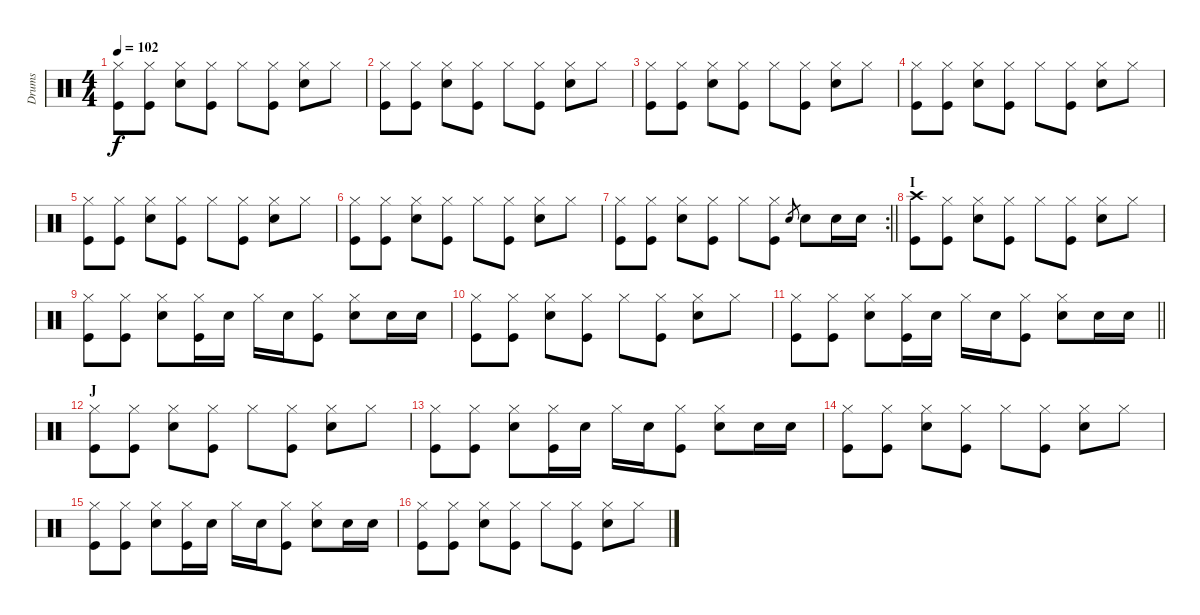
\track ("Drums" "Drums") {instrument percussion}
\staff {score}
\articulation defaults
\ts (4 4)
\tempo 102
\clef neutral
\ks c
("Hi-Hat (closed)" "Kick (hit)").8{dy f} ("Hi-Hat (closed)" "Kick (hit)").8 ("Hi-Hat (closed)" "Electric Snare (hit)").8 ("Hi-Hat (closed)" "Kick (hit)").8 "Hi-Hat (closed)".8 ("Hi-Hat (closed)" "Kick (hit)").8 ("Hi-Hat (closed)" "Electric Snare (hit)").8 "Hi-Hat (closed)".8 |
("Hi-Hat (closed)" "Kick (hit)").8 ("Hi-Hat (closed)" "Kick (hit)").8 ("Hi-Hat (closed)" "Electric Snare (hit)").8 ("Hi-Hat (closed)" "Kick (hit)").8 "Hi-Hat (closed)".8 ("Hi-Hat (closed)" "Kick (hit)").8 ("Hi-Hat (closed)" "Electric Snare (hit)").8 "Hi-Hat (closed)".8 |
("Hi-Hat (closed)" "Kick (hit)").8 ("Hi-Hat (closed)" "Kick (hit)").8 ("Hi-Hat (closed)" "Electric Snare (hit)").8 ("Hi-Hat (closed)" "Kick (hit)").8 "Hi-Hat (closed)".8 ("Hi-Hat (closed)" "Kick (hit)").8 ("Hi-Hat (closed)" "Electric Snare (hit)").8 "Hi-Hat (closed)".8 |
("Hi-Hat (closed)" "Kick (hit)").8 ("Hi-Hat (closed)" "Kick (hit)").8 ("Hi-Hat (closed)" "Electric Snare (hit)").8 ("Hi-Hat (closed)" "Kick (hit)").8 "Hi-Hat (closed)".8 ("Hi-Hat (closed)" "Kick (hit)").8 ("Hi-Hat (closed)" "Electric Snare (hit)").8 "Hi-Hat (closed)".8 |
("Hi-Hat (closed)" "Kick (hit)").8 ("Hi-Hat (closed)" "Kick (hit)").8 ("Hi-Hat (closed)" "Electric Snare (hit)").8 ("Hi-Hat (closed)" "Kick (hit)").8 "Hi-Hat (closed)".8 ("Hi-Hat (closed)" "Kick (hit)").8 ("Hi-Hat (closed)" "Electric Snare (hit)").8 "Hi-Hat (closed)".8 |
("Hi-Hat (closed)" "Kick (hit)").8 ("Hi-Hat (closed)" "Kick (hit)").8 ("Hi-Hat (closed)" "Electric Snare (hit)").8 ("Hi-Hat (closed)" "Kick (hit)").8 "Hi-Hat (closed)".8 ("Hi-Hat (closed)" "Kick (hit)").8 ("Hi-Hat (closed)" "Electric Snare (hit)").8 "Hi-Hat (closed)".8 |
\rc 2
\barLineRight lightlight
("Hi-Hat (closed)" "Kick (hit)").8 ("Hi-Hat (closed)" "Kick (hit)").8 ("Hi-Hat (closed)" "Electric Snare (hit)").8 ("Hi-Hat (closed)" "Kick (hit)").8 "Hi-Hat (closed)".8 ("Hi-Hat (closed)" "Kick (hit)").8 "Electric Snare (hit)".8{gr} "Electric Snare (hit)".8 "Electric Snare (hit)".16 "Electric Snare (hit)".16 |
\section ("" "I")
("Crash high (hit)" "Kick (hit)").8 ("Hi-Hat (closed)" "Kick (hit)").8 ("Hi-Hat (closed)" "Electric Snare (hit)").8 ("Hi-Hat (closed)" "Kick (hit)").8 "Hi-Hat (closed)".8 ("Hi-Hat (closed)" "Kick (hit)").8 ("Hi-Hat (closed)" "Electric Snare (hit)").8 "Hi-Hat (closed)".8 |
("Hi-Hat (closed)" "Kick (hit)").8 ("Hi-Hat (closed)" "Kick (hit)").8 ("Hi-Hat (closed)" "Electric Snare (hit)").8 ("Hi-Hat (closed)" "Kick (hit)").16 "Electric Snare (hit)".16 "Hi-Hat (closed)".16 "Electric Snare (hit)".16 ("Hi-Hat (closed)" "Kick (hit)").8 ("Hi-Hat (closed)" "Electric Snare (hit)").8 "Electric Snare (hit)".16 "Electric Snare (hit)".16 |
("Hi-Hat (closed)" "Kick (hit)").8 ("Hi-Hat (closed)" "Kick (hit)").8 ("Hi-Hat (closed)" "Electric Snare (hit)").8 ("Hi-Hat (closed)" "Kick (hit)").8 "Hi-Hat (closed)".8 ("Hi-Hat (closed)" "Kick (hit)").8 ("Hi-Hat (closed)" "Electric Snare (hit)").8 "Hi-Hat (closed)".8 |
\barLineRight lightlight
("Hi-Hat (closed)" "Kick (hit)").8 ("Hi-Hat (closed)" "Kick (hit)").8 ("Hi-Hat (closed)" "Electric Snare (hit)").8 ("Hi-Hat (closed)" "Kick (hit)").16 "Electric Snare (hit)".16 "Hi-Hat (closed)".16 "Electric Snare (hit)".16 ("Hi-Hat (closed)" "Kick (hit)").8 ("Hi-Hat (closed)" "Electric Snare (hit)").8 "Electric Snare (hit)".16 "Electric Snare (hit)".16 |
\section ("" "J")
("Hi-Hat (closed)" "Kick (hit)").8 ("Hi-Hat (closed)" "Kick (hit)").8 ("Hi-Hat (closed)" "Electric Snare (hit)").8 ("Hi-Hat (closed)" "Kick (hit)").8 "Hi-Hat (closed)".8 ("Hi-Hat (closed)" "Kick (hit)").8 ("Hi-Hat (closed)" "Electric Snare (hit)").8 "Hi-Hat (closed)".8 |
("Hi-Hat (closed)" "Kick (hit)").8 ("Hi-Hat (closed)" "Kick (hit)").8 ("Hi-Hat (closed)" "Electric Snare (hit)").8 ("Hi-Hat (closed)" "Kick (hit)").16 "Electric Snare (hit)".16 "Hi-Hat (closed)".16 "Electric Snare (hit)".16 ("Hi-Hat (closed)" "Kick (hit)").8 ("Hi-Hat (closed)" "Electric Snare (hit)").8 "Electric Snare (hit)".16 "Electric Snare (hit)".16 |
("Hi-Hat (closed)" "Kick (hit)").8 ("Hi-Hat (closed)" "Kick (hit)").8 ("Hi-Hat (closed)" "Electric Snare (hit)").8 ("Hi-Hat (closed)" "Kick (hit)").8 "Hi-Hat (closed)".8 ("Hi-Hat (closed)" "Kick (hit)").8 ("Hi-Hat (closed)" "Electric Snare (hit)").8 "Hi-Hat (closed)".8 |
("Hi-Hat (closed)" "Kick (hit)").8 ("Hi-Hat (closed)" "Kick (hit)").8 ("Hi-Hat (closed)" "Electric Snare (hit)").8 ("Hi-Hat (closed)" "Kick (hit)").16 "Electric Snare (hit)".16 "Hi-Hat (closed)".16 "Electric Snare (hit)".16 ("Hi-Hat (closed)" "Kick (hit)").8 ("Hi-Hat (closed)" "Electric Snare (hit)").8 "Electric Snare (hit)".16 "Electric Snare (hit)".16 |
("Hi-Hat (closed)" "Kick (hit)").8 ("Hi-Hat (closed)" "Kick (hit)").8 ("Hi-Hat (closed)" "Electric Snare (hit)").8 ("Hi-Hat (closed)" "Kick (hit)").8 "Hi-Hat (closed)".8 ("Hi-Hat (closed)" "Kick (hit)").8 ("Hi-Hat (closed)" "Electric Snare (hit)").8 "Hi-Hat (closed)".8
